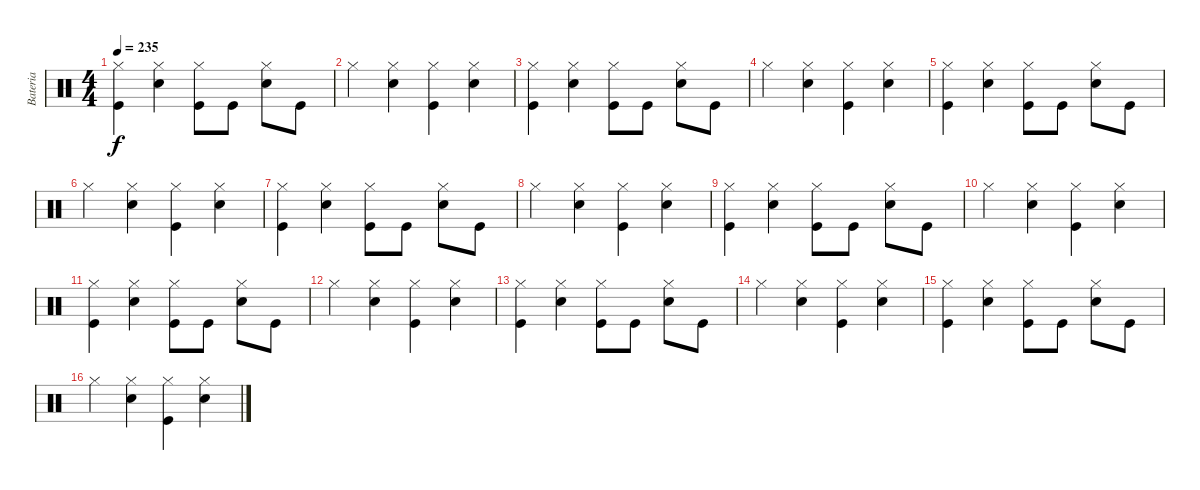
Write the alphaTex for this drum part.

\track ("Bateria" "Bateria") {instrument percussion}
\staff {score}
\articulation defaults
\ts (4 4)
\tempo 235
\clef neutral
\ks c
("Hi-Hat (closed)" "Kick (hit)").4{dy f} ("Hi-Hat (closed)" "Electric Snare (hit)").4 ("Hi-Hat (closed)" "Kick (hit)").8 "Kick (hit)".8 ("Hi-Hat (closed)" "Electric Snare (hit)").8 "Kick (hit)".8 |
"Hi-Hat (closed)".4 ("Hi-Hat (closed)" "Electric Snare (hit)").4 ("Hi-Hat (closed)" "Kick (hit)").4 ("Hi-Hat (closed)" "Electric Snare (hit)").4 |
("Hi-Hat (closed)" "Kick (hit)").4 ("Hi-Hat (closed)" "Electric Snare (hit)").4 ("Hi-Hat (closed)" "Kick (hit)").8 "Kick (hit)".8 ("Hi-Hat (closed)" "Electric Snare (hit)").8 "Kick (hit)".8 |
"Hi-Hat (closed)".4 ("Hi-Hat (closed)" "Electric Snare (hit)").4 ("Hi-Hat (closed)" "Kick (hit)").4 ("Hi-Hat (closed)" "Electric Snare (hit)").4 |
("Hi-Hat (closed)" "Kick (hit)").4 ("Hi-Hat (closed)" "Electric Snare (hit)").4 ("Hi-Hat (closed)" "Kick (hit)").8 "Kick (hit)".8 ("Hi-Hat (closed)" "Electric Snare (hit)").8 "Kick (hit)".8 |
"Hi-Hat (closed)".4 ("Hi-Hat (closed)" "Electric Snare (hit)").4 ("Hi-Hat (closed)" "Kick (hit)").4 ("Hi-Hat (closed)" "Electric Snare (hit)").4 |
("Hi-Hat (closed)" "Kick (hit)").4 ("Hi-Hat (closed)" "Electric Snare (hit)").4 ("Hi-Hat (closed)" "Kick (hit)").8 "Kick (hit)".8 ("Hi-Hat (closed)" "Electric Snare (hit)").8 "Kick (hit)".8 |
"Hi-Hat (closed)".4 ("Hi-Hat (closed)" "Electric Snare (hit)").4 ("Hi-Hat (closed)" "Kick (hit)").4 ("Hi-Hat (closed)" "Electric Snare (hit)").4 |
("Hi-Hat (closed)" "Kick (hit)").4 ("Hi-Hat (closed)" "Electric Snare (hit)").4 ("Hi-Hat (closed)" "Kick (hit)").8 "Kick (hit)".8 ("Hi-Hat (closed)" "Electric Snare (hit)").8 "Kick (hit)".8 |
"Hi-Hat (closed)".4 ("Hi-Hat (closed)" "Electric Snare (hit)").4 ("Hi-Hat (closed)" "Kick (hit)").4 ("Hi-Hat (closed)" "Electric Snare (hit)").4 |
("Hi-Hat (closed)" "Kick (hit)").4 ("Hi-Hat (closed)" "Electric Snare (hit)").4 ("Hi-Hat (closed)" "Kick (hit)").8 "Kick (hit)".8 ("Hi-Hat (closed)" "Electric Snare (hit)").8 "Kick (hit)".8 |
"Hi-Hat (closed)".4 ("Hi-Hat (closed)" "Electric Snare (hit)").4 ("Hi-Hat (closed)" "Kick (hit)").4 ("Hi-Hat (closed)" "Electric Snare (hit)").4 |
("Hi-Hat (closed)" "Kick (hit)").4 ("Hi-Hat (closed)" "Electric Snare (hit)").4 ("Hi-Hat (closed)" "Kick (hit)").8 "Kick (hit)".8 ("Hi-Hat (closed)" "Electric Snare (hit)").8 "Kick (hit)".8 |
"Hi-Hat (closed)".4 ("Hi-Hat (closed)" "Electric Snare (hit)").4 ("Hi-Hat (closed)" "Kick (hit)").4 ("Hi-Hat (closed)" "Electric Snare (hit)").4 |
("Hi-Hat (closed)" "Kick (hit)").4 ("Hi-Hat (closed)" "Electric Snare (hit)").4 ("Hi-Hat (closed)" "Kick (hit)").8 "Kick (hit)".8 ("Hi-Hat (closed)" "Electric Snare (hit)").8 "Kick (hit)".8 |
"Hi-Hat (closed)".4 ("Hi-Hat (closed)" "Electric Snare (hit)").4 ("Hi-Hat (closed)" "Kick (hit)").4 ("Hi-Hat (closed)" "Electric Snare (hit)").4
